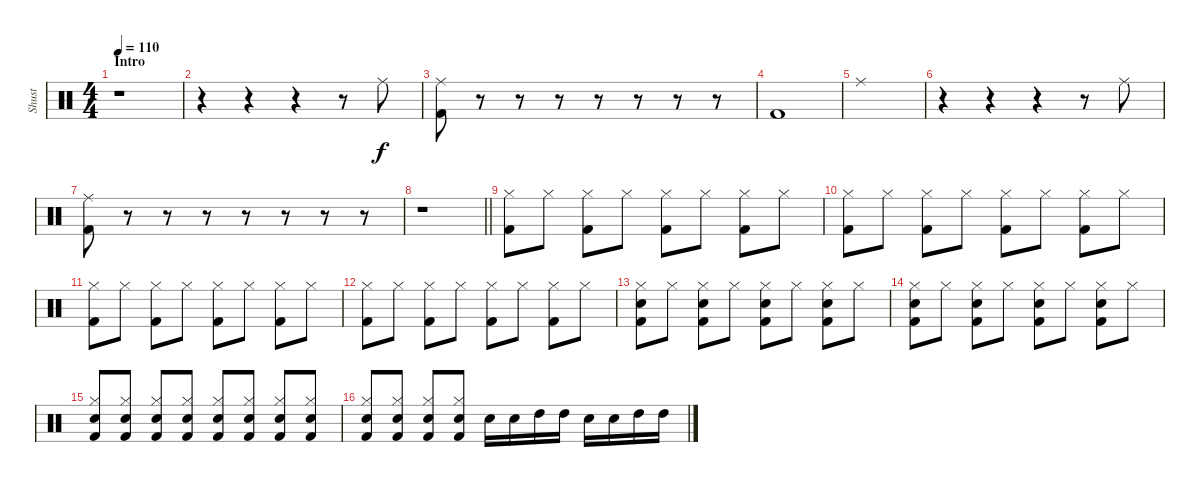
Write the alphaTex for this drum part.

\track ("Shust" "Shust") {instrument percussion}
\staff {score}
\articulation defaults
\ts (4 4)
\section ("" "Intro")
\tempo 110
\clef neutral
\ks c
r.1{dy f} |
r.4 r.4 r.4 r.8 "Ride (middle)".8 |
("Ride (middle)" "Kick (hit) 2").8 r.8 r.8 r.8 r.8 r.8 r.8 r.8 |
"Kick (hit) 2".1 |
"Ride (middle)".1 |
r.4 r.4 r.4 r.8 "Ride (middle)".8 |
("Ride (middle)" "Kick (hit) 2").8 r.8 r.8 r.8 r.8 r.8 r.8 r.8 |
\barLineRight lightlight
r.1 |
("Hi-Hat (closed)" "Kick (hit) 2").8 "Hi-Hat (closed)".8 ("Hi-Hat (closed)" "Kick (hit) 2").8 "Hi-Hat (closed)".8 ("Hi-Hat (closed)" "Kick (hit) 2").8 "Hi-Hat (closed)".8 ("Hi-Hat (closed)" "Kick (hit) 2").8 "Hi-Hat (closed)".8 |
("Hi-Hat (closed)" "Kick (hit) 2").8 "Hi-Hat (closed)".8 ("Hi-Hat (closed)" "Kick (hit) 2").8 "Hi-Hat (closed)".8 ("Hi-Hat (closed)" "Kick (hit) 2").8 "Hi-Hat (closed)".8 ("Hi-Hat (closed)" "Kick (hit) 2").8 "Hi-Hat (closed)".8 |
("Hi-Hat (closed)" "Kick (hit) 2").8 "Hi-Hat (closed)".8 ("Hi-Hat (closed)" "Kick (hit) 2").8 "Hi-Hat (closed)".8 ("Hi-Hat (closed)" "Kick (hit) 2").8 "Hi-Hat (closed)".8 ("Hi-Hat (closed)" "Kick (hit) 2").8 "Hi-Hat (closed)".8 |
("Hi-Hat (closed)" "Kick (hit) 2").8 "Hi-Hat (closed)".8 ("Hi-Hat (closed)" "Kick (hit) 2").8 "Hi-Hat (closed)".8 ("Hi-Hat (closed)" "Kick (hit) 2").8 "Hi-Hat (closed)".8 ("Hi-Hat (closed)" "Kick (hit) 2").8 "Hi-Hat (closed)".8 |
("Hi-Hat (closed)" "Electric Snare (hit)" "Kick (hit) 2").8 "Hi-Hat (closed)".8 ("Hi-Hat (closed)" "Electric Snare (hit)" "Kick (hit) 2").8 "Hi-Hat (closed)".8 ("Hi-Hat (closed)" "Electric Snare (hit)" "Kick (hit) 2").8 "Hi-Hat (closed)".8 ("Hi-Hat (closed)" "Electric Snare (hit)" "Kick (hit) 2").8 "Hi-Hat (closed)".8 |
("Hi-Hat (closed)" "Electric Snare (hit)" "Kick (hit) 2").8 "Hi-Hat (closed)".8 ("Hi-Hat (closed)" "Electric Snare (hit)" "Kick (hit) 2").8 "Hi-Hat (closed)".8 ("Hi-Hat (closed)" "Electric Snare (hit)" "Kick (hit) 2").8 "Hi-Hat (closed)".8 ("Hi-Hat (closed)" "Electric Snare (hit)" "Kick (hit) 2").8 "Hi-Hat (closed)".8 |
("Hi-Hat (closed)" "Electric Snare (hit)" "Kick (hit) 2").8 ("Hi-Hat (closed)" "Electric Snare (hit)" "Kick (hit) 2").8 ("Hi-Hat (closed)" "Electric Snare (hit)" "Kick (hit) 2").8 ("Hi-Hat (closed)" "Electric Snare (hit)" "Kick (hit) 2").8 ("Hi-Hat (closed)" "Electric Snare (hit)" "Kick (hit) 2").8 ("Hi-Hat (closed)" "Electric Snare (hit)" "Kick (hit) 2").8 ("Hi-Hat (closed)" "Electric Snare (hit)" "Kick (hit) 2").8 ("Hi-Hat (closed)" "Electric Snare (hit)" "Kick (hit) 2").8 |
("Hi-Hat (closed)" "Electric Snare (hit)" "Kick (hit) 2").8 ("Hi-Hat (closed)" "Electric Snare (hit)" "Kick (hit) 2").8 ("Hi-Hat (closed)" "Electric Snare (hit)" "Kick (hit) 2").8 ("Hi-Hat (closed)" "Electric Snare (hit)" "Kick (hit) 2").8 "Electric Snare (hit)".16 "Electric Snare (hit)".16 "High Tom (hit)".16 "High Tom (hit)".16 "Electric Snare (hit)".16 "Electric Snare (hit)".16 "High Tom (hit)".16 "High Tom (hit)".16
